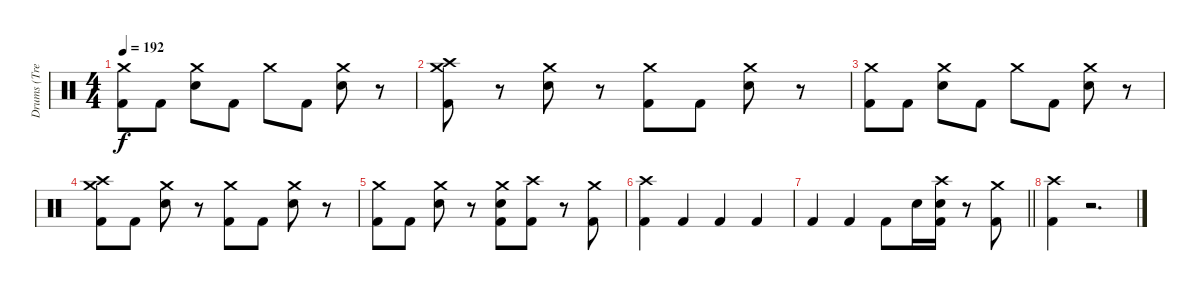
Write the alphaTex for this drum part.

\track ("Drums (Tre Cool)" "Drums (Tre") {instrument percussion}
\staff {score}
\articulation defaults
\ts (4 4)
\tempo 192
\clef neutral
\ks c
("Crash medium (hit)" "Kick (hit) 2").8{dy f} "Kick (hit) 2".8 ("Crash medium (hit)" "Snare (hit) 2").8 "Kick (hit) 2".8 "Crash medium (hit)".8 "Kick (hit) 2".8 ("Crash medium (hit)" "Snare (hit) 2").8 r.8 |
("Crash high (hit)" "Crash medium (hit)" "Kick (hit) 2").8 r.8 ("Crash medium (hit)" "Snare (hit) 2").8 r.8 ("Crash medium (hit)" "Kick (hit) 2").8 "Kick (hit) 2".8 ("Crash medium (hit)" "Snare (hit) 2").8 r.8 |
("Crash medium (hit)" "Kick (hit) 2").8 "Kick (hit) 2".8 ("Crash medium (hit)" "Snare (hit) 2").8 "Kick (hit) 2".8 "Crash medium (hit)".8 "Kick (hit) 2".8 ("Crash medium (hit)" "Snare (hit) 2").8 r.8 |
("Crash high (hit)" "Crash medium (hit)" "Kick (hit) 2").8 "Kick (hit) 2".8 ("Crash medium (hit)" "Snare (hit) 2").8 r.8 ("Crash medium (hit)" "Kick (hit) 2").8 "Kick (hit) 2".8 ("Crash medium (hit)" "Snare (hit) 2").8 r.8 |
("Crash medium (hit)" "Kick (hit) 2").8 "Kick (hit) 2".8 ("Crash medium (hit)" "Snare (hit) 2").8 r.8 ("Crash medium (hit)" "Snare (hit) 2" "Kick (hit) 2").8 ("Crash high (hit)" "Kick (hit) 2").8 r.8 ("Crash medium (hit)" "Kick (hit) 2").8 |
("Crash high (hit)" "Kick (hit) 2").4 "Kick (hit) 2".4 "Kick (hit) 2".4 "Kick (hit) 2".4 |
\barLineRight lightlight "Kick (hit) 2".4 "Kick (hit) 2".4 "Kick (hit) 2".8 "Snare (hit) 2".16
("Crash high (hit)" "Snare (hit) 2" "Kick (hit) 2").16 r.8 ("Crash medium (hit)" "Kick (hit) 2").8 |
("Crash high (hit)" "Kick (hit) 2").4 r.2{d}
